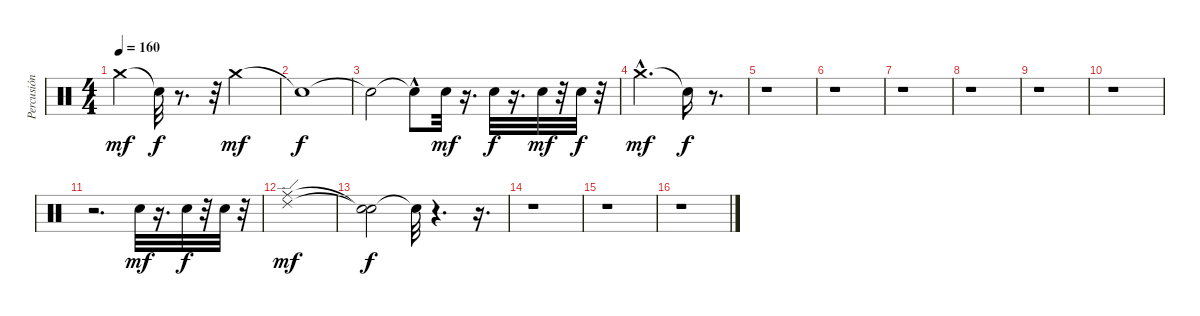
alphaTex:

\track ("Percusión" "Percusión") {instrument percussion}
\staff {score}
\articulation defaults
\ts (4 4)
\tempo 160
\clef neutral
\ks c "Crash medium (hit)".4{dy mf} "Snare (hit)"{t}.32{dy f}
r.8{d} r.32 "Crash medium (hit)".2{dy mf} |
"Snare (hit)"{t}.1{dy f} |
"Snare (hit)"{t}.2 "Snare (hit)"{hac t}.8 "Electric Snare (hit)".32{dy mf} r.16{d} "Electric Snare (hit)".32{dy f} r.16{d} "Electric Snare (hit)".32{dy mf} r.32 "Electric Snare (hit)".32{dy f} r.32 |
"Crash medium (hit)"{hac}.2{d dy mf} "Snare (hit)"{t}.16{dy f} r.8{d} |
r.1 |
r.1 |
r.1 |
r.1 |
r.1 |
r.1 |
r.2{d} "Electric Snare (hit)".32{dy mf} r.16{d} "Electric Snare (hit)".32{dy f} r.32 "Electric Snare (hit)".32 r.32 |
("Ride (edge) 2" "Ride (middle)").1{dy mf} |
("Snare (hit)"{t} "Snare (hit)"{t}).2{dy f} "Snare (hit)"{t}.32 r.4{d} r.16{d} |
r.1 |
r.1 |
r.1
